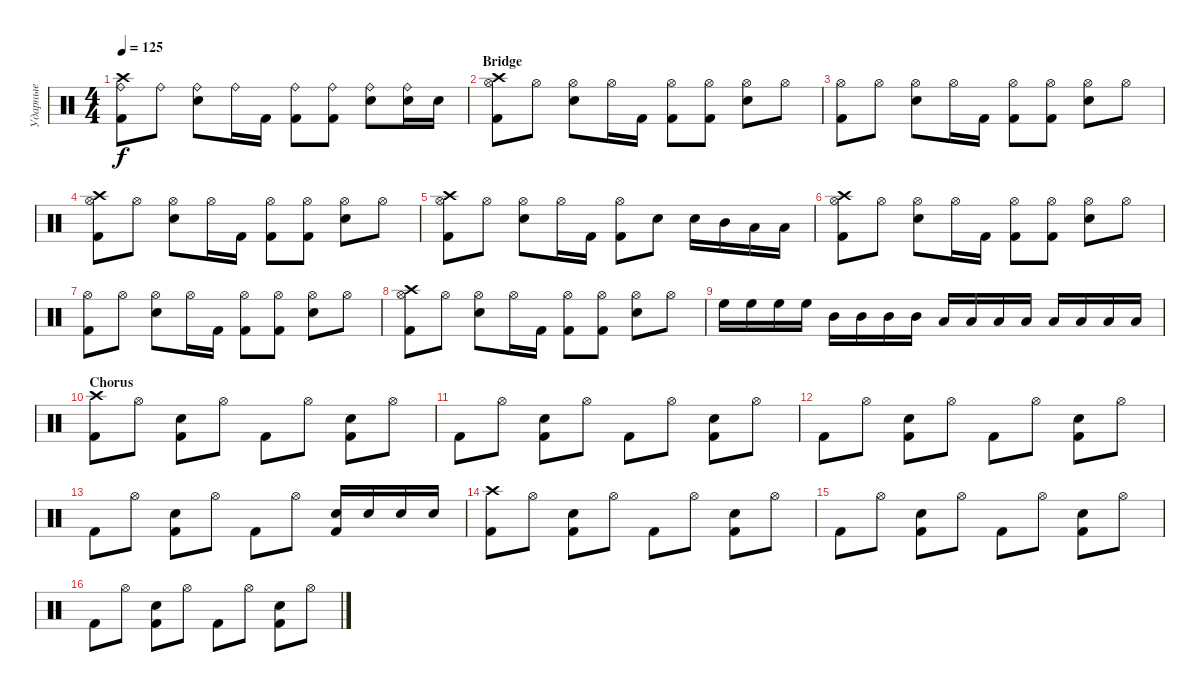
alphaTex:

\track ("Ударные" "Ударные") {instrument percussion}
\staff {score}
\articulation defaults
\ts (4 4)
\tempo 125
\clef neutral
\ks c
("Ride (bell)" "Crash high (hit)" "Kick (hit) 2").8{dy f} "Ride (bell)".8 ("Ride (bell)" "Snare (hit) 2").8 "Ride (bell)".16 "Kick (hit) 2".16 ("Ride (bell)" "Kick (hit) 2").8 ("Ride (bell)" "Kick (hit) 2").8 ("Ride (bell)" "Snare (hit) 2").8 ("Ride (bell)" "Snare (hit) 2").16 "Snare (hit) 2".16 |
\section ("" "Bridge")
("Hi-Hat (open)" "Crash high (hit)" "Kick (hit) 2").8 "Hi-Hat (open)".8 ("Hi-Hat (open)" "Snare (hit) 2").8 "Hi-Hat (open)".16 "Kick (hit) 2".16 ("Hi-Hat (open)" "Kick (hit) 2").8 ("Hi-Hat (open)" "Kick (hit) 2").8 ("Hi-Hat (open)" "Snare (hit) 2").8 "Hi-Hat (open)".8 |
("Hi-Hat (open)" "Kick (hit) 2").8 "Hi-Hat (open)".8 ("Hi-Hat (open)" "Snare (hit) 2").8 "Hi-Hat (open)".16 "Kick (hit) 2".16 ("Hi-Hat (open)" "Kick (hit) 2").8 ("Hi-Hat (open)" "Kick (hit) 2").8 ("Hi-Hat (open)" "Snare (hit) 2").8 "Hi-Hat (open)".8 |
("Hi-Hat (open)" "Crash high (hit)" "Kick (hit) 2").8 "Hi-Hat (open)".8 ("Hi-Hat (open)" "Snare (hit) 2").8 "Hi-Hat (open)".16 "Kick (hit) 2".16 ("Hi-Hat (open)" "Kick (hit) 2").8 ("Hi-Hat (open)" "Kick (hit) 2").8 ("Hi-Hat (open)" "Snare (hit) 2").8 "Hi-Hat (open)".8 |
("Hi-Hat (open)" "Crash high (hit)" "Kick (hit) 2").8 "Hi-Hat (open)".8 ("Hi-Hat (open)" "Snare (hit) 2").8 "Hi-Hat (open)".16 "Kick (hit) 2".16 ("Hi-Hat (open)" "Kick (hit) 2").8 "Snare (hit) 2".8 "Snare (hit) 2".16 "Mid Tom (hit)".16 "Low Tom (hit)".16 "Low Floor Tom (hit)".16 |
("Hi-Hat (open)" "Crash high (hit)" "Kick (hit) 2").8 "Hi-Hat (open)".8 ("Hi-Hat (open)" "Snare (hit) 2").8 "Hi-Hat (open)".16 "Kick (hit) 2".16 ("Hi-Hat (open)" "Kick (hit) 2").8 ("Hi-Hat (open)" "Kick (hit) 2").8 ("Hi-Hat (open)" "Snare (hit) 2").8 "Hi-Hat (open)".8 |
("Hi-Hat (open)" "Kick (hit) 2").8 "Hi-Hat (open)".8 ("Hi-Hat (open)" "Snare (hit) 2").8 "Hi-Hat (open)".16 "Kick (hit) 2".16 ("Hi-Hat (open)" "Kick (hit) 2").8 ("Hi-Hat (open)" "Kick (hit) 2").8 ("Hi-Hat (open)" "Snare (hit) 2").8 "Hi-Hat (open)".8 |
("Hi-Hat (open)" "Crash high (hit)" "Kick (hit) 2").8 "Hi-Hat (open)".8 ("Hi-Hat (open)" "Snare (hit) 2").8 "Hi-Hat (open)".16 "Kick (hit) 2".16 ("Hi-Hat (open)" "Kick (hit) 2").8 ("Hi-Hat (open)" "Kick (hit) 2").8 ("Hi-Hat (open)" "Snare (hit) 2").8 "Hi-Hat (open)".8 |
"High Floor Tom (hit)".16 "High Floor Tom (hit)".16 "High Floor Tom (hit)".16 "High Floor Tom (hit)".16 "Mid Tom (hit)".16 "Mid Tom (hit)".16 "Mid Tom (hit)".16 "Mid Tom (hit)".16 "Low Tom (hit)".16 "Low Tom (hit)".16 "Low Tom (hit)".16 "Low Tom (hit)".16 "Low Floor Tom (hit)".16 "Low Floor Tom (hit)".16 "Low Floor Tom (hit)".16 "Low Floor Tom (hit)".16 |
\section ("" "Chorus")
("Crash high (hit)" "Kick (hit) 2").8 "Hi-Hat (open)".8 ("Snare (hit) 2" "Kick (hit) 2").8 "Hi-Hat (open)".8 "Kick (hit) 2".8 "Hi-Hat (open)".8 ("Snare (hit) 2" "Kick (hit) 2").8 "Hi-Hat (open)".8 |
"Kick (hit) 2".8 "Hi-Hat (open)".8 ("Snare (hit) 2" "Kick (hit) 2").8 "Hi-Hat (open)".8 "Kick (hit) 2".8 "Hi-Hat (open)".8 ("Snare (hit) 2" "Kick (hit) 2").8 "Hi-Hat (open)".8 |
"Kick (hit) 2".8 "Hi-Hat (open)".8 ("Snare (hit) 2" "Kick (hit) 2").8 "Hi-Hat (open)".8 "Kick (hit) 2".8 "Hi-Hat (open)".8 ("Snare (hit) 2" "Kick (hit) 2").8 "Hi-Hat (open)".8 |
"Kick (hit) 2".8 "Hi-Hat (open)".8 ("Snare (hit) 2" "Kick (hit) 2").8 "Hi-Hat (open)".8 "Kick (hit) 2".8 "Hi-Hat (open)".8 ("Snare (hit) 2" "Kick (hit) 2").16 "Snare (hit) 2".16 "Snare (hit) 2".16 "Snare (hit) 2".16 |
("Crash high (hit)" "Kick (hit) 2").8 "Hi-Hat (open)".8 ("Snare (hit) 2" "Kick (hit) 2").8 "Hi-Hat (open)".8 "Kick (hit) 2".8 "Hi-Hat (open)".8 ("Snare (hit) 2" "Kick (hit) 2").8 "Hi-Hat (open)".8 |
"Kick (hit) 2".8 "Hi-Hat (open)".8 ("Snare (hit) 2" "Kick (hit) 2").8 "Hi-Hat (open)".8 "Kick (hit) 2".8 "Hi-Hat (open)".8 ("Snare (hit) 2" "Kick (hit) 2").8 "Hi-Hat (open)".8 |
"Kick (hit) 2".8 "Hi-Hat (open)".8 ("Snare (hit) 2" "Kick (hit) 2").8 "Hi-Hat (open)".8 "Kick (hit) 2".8 "Hi-Hat (open)".8 ("Snare (hit) 2" "Kick (hit) 2").8 "Hi-Hat (open)".8
